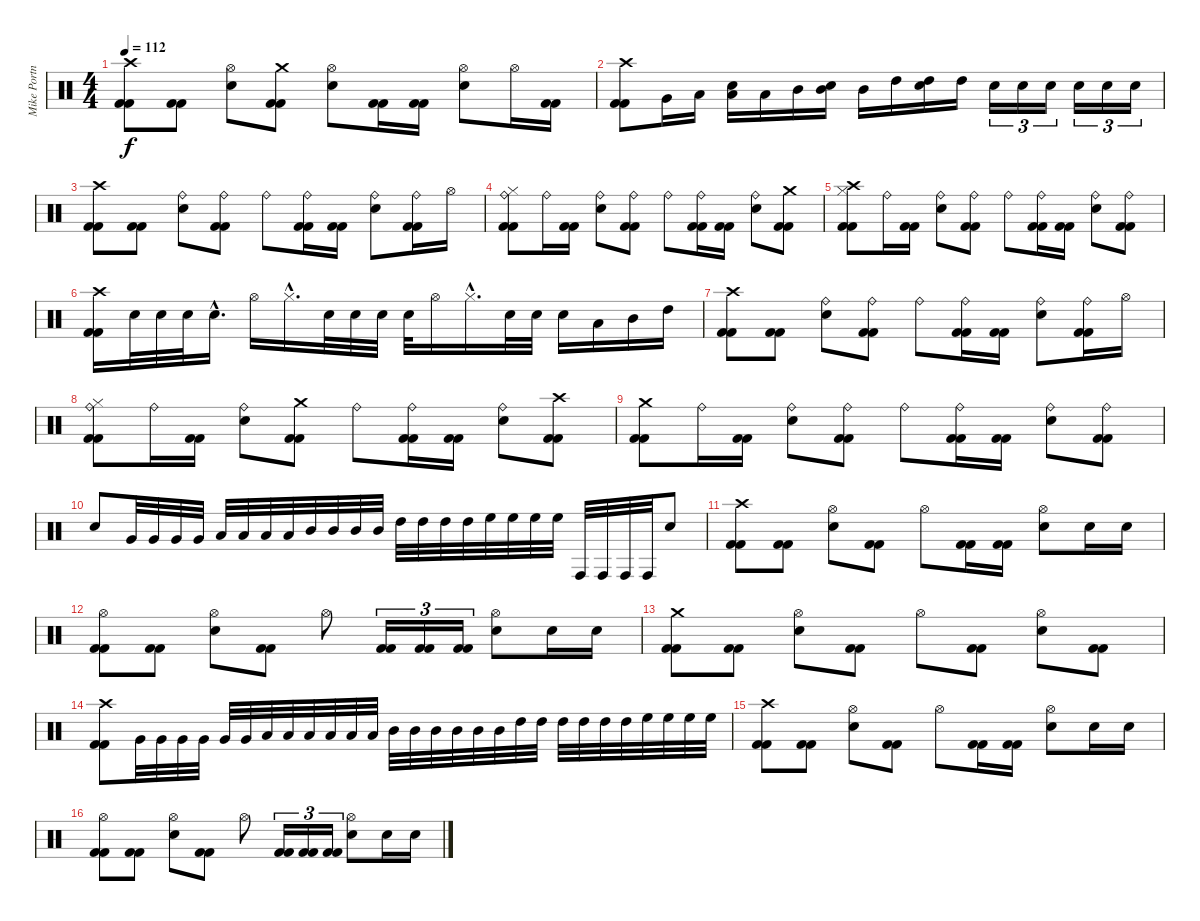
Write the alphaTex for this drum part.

\track ("Mike Portnoy - Drum" "Mike Portn") {instrument percussion}
\staff {score}
\articulation defaults
\ts (4 4)
\tempo 112
\clef neutral
\ks c
("Crash high (hit)" "Kick (hit) 2" "Kick (hit) 2").8{dy f} ("Kick (hit) 2" "Kick (hit) 2").8 ("Hi-Hat (open)" "Snare (hit) 2").8 ("Crash medium (hit)" "Kick (hit) 2" "Kick (hit) 2").8 ("Hi-Hat (open)" "Snare (hit) 2").8 ("Kick (hit) 2" "Kick (hit) 2").16 ("Kick (hit) 2" "Kick (hit) 2").16 ("Hi-Hat (open)" "Snare (hit) 2").8 "Hi-Hat (open)".16 ("Kick (hit) 2" "Kick (hit) 2").16 |
("Crash high (hit)" "Kick (hit) 2" "Kick (hit) 2").8 "Very Low Tom (hit)".16 "Low Tom (hit)".16 ("Snare (hit) 2" "Low Tom (hit)").16 "Low Tom (hit)".16 "Mid Tom (hit)".16 ("Snare (hit) 2" "Mid Tom (hit)").16 "Mid Tom (hit)".16 "High Tom (hit)".16 ("High Tom (hit)" "Snare (hit) 2").16 "High Tom (hit)".16 "Snare (hit) 2".16{tu (3 2)} "Snare (hit) 2".16{tu (3 2)} "Snare (hit) 2".16{tu (3 2)} "Snare (hit) 2".16{tu (3 2)} "Snare (hit) 2".16{tu (3 2)} "Snare (hit) 2".16{tu (3 2)} |
("Crash high (hit)" "Kick (hit) 2" "Kick (hit) 2").8 ("Kick (hit) 2" "Kick (hit) 2").8 ("Ride (bell)" "Snare (hit) 2").8 ("Ride (bell)" "Kick (hit) 2" "Kick (hit) 2").8 "Ride (bell)".8 ("Ride (bell)" "Kick (hit) 2" "Kick (hit) 2").16 ("Kick (hit) 2" "Kick (hit) 2").16 ("Ride (bell)" "Snare (hit) 2").8 ("Ride (bell)" "Kick (hit) 2" "Kick (hit) 2").16 "Hi-Hat (open)".16 |
("Ride (bell)" "Hi-Hat (closed)" "Kick (hit) 2" "Kick (hit) 2").8 "Ride (bell)".16 ("Kick (hit) 2" "Kick (hit) 2").16 ("Ride (bell)" "Snare (hit) 2").8 ("Ride (bell)" "Kick (hit) 2" "Kick (hit) 2").8 "Ride (bell)".8 ("Ride (bell)" "Kick (hit) 2" "Kick (hit) 2").16 ("Kick (hit) 2" "Kick (hit) 2").16 ("Ride (bell)" "Snare (hit) 2").8 ("Crash medium (hit)" "Kick (hit) 2" "Kick (hit) 2").8 |
("Crash high (hit)" "Hi-Hat (closed)" "Kick (hit) 2" "Kick (hit) 2").8 "Ride (bell)".16 ("Kick (hit) 2" "Kick (hit) 2").16 ("Ride (bell)" "Snare (hit) 2").8 ("Ride (bell)" "Kick (hit) 2" "Kick (hit) 2").8 "Ride (bell)".8 ("Ride (bell)" "Kick (hit) 2" "Kick (hit) 2").16 ("Kick (hit) 2" "Kick (hit) 2").16 ("Ride (bell)" "Snare (hit) 2").8 ("Ride (bell)" "Kick (hit) 2" "Kick (hit) 2").8 |
("Crash high (hit)" "Kick (hit) 2" "Kick (hit) 2").16 "Snare (hit) 2".32 "Snare (hit) 2".32 "Snare (hit) 2".32 "Snare (hit) 2"{hac}.16{d} "Hi-Hat (open)".16 "Hi-Hat (closed)"{hac}.16{d} "Snare (hit) 2".32 "Snare (hit) 2".32 "Snare (hit) 2".32 "Snare (hit) 2".32 "Hi-Hat (open)".16 "Hi-Hat (closed)"{hac}.16{d} "Snare (hit) 2".32 "Snare (hit) 2".32 "Snare (hit) 2".16 "Low Tom (hit)".16 "Mid Tom (hit)".16 "High Tom (hit)".16 |
("Crash high (hit)" "Kick (hit) 2" "Kick (hit) 2").8 ("Kick (hit) 2" "Kick (hit) 2").8 ("Ride (bell)" "Snare (hit) 2").8 ("Ride (bell)" "Kick (hit) 2" "Kick (hit) 2").8 "Ride (bell)".8 ("Ride (bell)" "Kick (hit) 2" "Kick (hit) 2").16 ("Kick (hit) 2" "Kick (hit) 2").16 ("Ride (bell)" "Snare (hit) 2").8 ("Ride (bell)" "Kick (hit) 2" "Kick (hit) 2").16 "Hi-Hat (open)".16 |
("Ride (bell)" "Hi-Hat (closed)" "Kick (hit) 2" "Kick (hit) 2").8 "Ride (bell)".16 ("Kick (hit) 2" "Kick (hit) 2").16 ("Ride (bell)" "Snare (hit) 2").8 ("Crash medium (hit)" "Kick (hit) 2" "Kick (hit) 2").8 "Ride (bell)".8 ("Ride (bell)" "Kick (hit) 2" "Kick (hit) 2").16 ("Kick (hit) 2" "Kick (hit) 2").16 ("Ride (bell)" "Snare (hit) 2").8 ("Crash high (hit)" "Kick (hit) 2" "Kick (hit) 2").8 |
("Crash medium (hit)" "Kick (hit) 2" "Kick (hit) 2").8 "Ride (bell)".16 ("Kick (hit) 2" "Kick (hit) 2").16 ("Ride (bell)" "Snare (hit) 2").8 ("Ride (bell)" "Kick (hit) 2" "Kick (hit) 2").8 "Ride (bell)".8 ("Ride (bell)" "Kick (hit) 2" "Kick (hit) 2").16 ("Kick (hit) 2" "Kick (hit) 2").16 ("Ride (bell)" "Snare (hit) 2").8 ("Ride (bell)" "Kick (hit) 2" "Kick (hit) 2").8 |
"Snare (hit) 2".8 "Very Low Tom (hit)".32 "Very Low Tom (hit)".32 "Very Low Tom (hit)".32 "Very Low Tom (hit)".32 "Low Tom (hit)".32 "Low Tom (hit)".32 "Low Tom (hit)".32 "Low Tom (hit)".32 "Mid Tom (hit)".32 "Mid Tom (hit)".32 "Mid Tom (hit)".32 "Mid Tom (hit)".32 "High Tom (hit)".32 "High Tom (hit)".32 "High Tom (hit)".32 "High Tom (hit)".32 "High Floor Tom (hit)".32 "High Floor Tom (hit)".32 "High Floor Tom (hit)".32 "High Floor Tom (hit)".32 "Conga high (hit)".32 "Conga high (hit)".32 "Conga high (hit)".32 "Conga high (hit)".32 "Snare (hit) 2".8 |
("Crash high (hit)" "Kick (hit) 2" "Kick (hit) 2").8 ("Kick (hit) 2" "Kick (hit) 2").8 ("Hi-Hat (open)" "Snare (hit) 2").8 ("Kick (hit) 2" "Kick (hit) 2").8 "Hi-Hat (open)".8 ("Kick (hit) 2" "Kick (hit) 2").16 ("Kick (hit) 2" "Kick (hit) 2").16 ("Hi-Hat (open)" "Snare (hit) 2").8 "Snare (hit) 2".16 "Snare (hit) 2".16 |
("Hi-Hat (open)" "Kick (hit) 2" "Kick (hit) 2").8 ("Kick (hit) 2" "Kick (hit) 2").8 ("Hi-Hat (open)" "Snare (hit) 2").8 ("Kick (hit) 2" "Kick (hit) 2").8 "Hi-Hat (open)".8 ("Kick (hit) 2" "Kick (hit) 2").16{tu (3 2)} ("Kick (hit) 2" "Kick (hit) 2").16{tu (3 2)} ("Kick (hit) 2" "Kick (hit) 2").16{tu (3 2)} ("Hi-Hat (open)" "Snare (hit) 2").8 "Snare (hit) 2".16 "Snare (hit) 2".16 |
("Crash medium (hit)" "Kick (hit) 2" "Kick (hit) 2").8 ("Kick (hit) 2" "Kick (hit) 2").8 ("Hi-Hat (open)" "Snare (hit) 2").8 ("Kick (hit) 2" "Kick (hit) 2").8 "Hi-Hat (open)".8 ("Kick (hit) 2" "Kick (hit) 2").8 ("Hi-Hat (open)" "Snare (hit) 2").8 ("Kick (hit) 2" "Kick (hit) 2").8 |
("Crash high (hit)" "Kick (hit) 2" "Kick (hit) 2").8 "Very Low Tom (hit)".32 "Very Low Tom (hit)".32 "Very Low Tom (hit)".32 "Very Low Tom (hit)".32 "Very Low Tom (hit)".32 "Very Low Tom (hit)".32 "Low Tom (hit)".32 "Low Tom (hit)".32 "Low Tom (hit)".32 "Low Tom (hit)".32 "Low Tom (hit)".32 "Low Tom (hit)".32 "Mid Tom (hit)".32 "Mid Tom (hit)".32 "Mid Tom (hit)".32 "Mid Tom (hit)".32 "Mid Tom (hit)".32 "Mid Tom (hit)".32 "High Tom (hit)".32 "High Tom (hit)".32 "High Tom (hit)".32 "High Tom (hit)".32 "High Tom (hit)".32 "High Tom (hit)".32 "High Floor Tom (hit)".32 "High Floor Tom (hit)".32 "High Floor Tom (hit)".32 "High Floor Tom (hit)".32 |
("Crash high (hit)" "Kick (hit) 2" "Kick (hit) 2").8 ("Kick (hit) 2" "Kick (hit) 2").8 ("Hi-Hat (open)" "Snare (hit) 2").8 ("Kick (hit) 2" "Kick (hit) 2").8 "Hi-Hat (open)".8 ("Kick (hit) 2" "Kick (hit) 2").16 ("Kick (hit) 2" "Kick (hit) 2").16 ("Hi-Hat (open)" "Snare (hit) 2").8 "Snare (hit) 2".16 "Snare (hit) 2".16 |
("Hi-Hat (open)" "Kick (hit) 2" "Kick (hit) 2").8 ("Kick (hit) 2" "Kick (hit) 2").8 ("Hi-Hat (open)" "Snare (hit) 2").8 ("Kick (hit) 2" "Kick (hit) 2").8 "Hi-Hat (open)".8 ("Kick (hit) 2" "Kick (hit) 2").16{tu (3 2)} ("Kick (hit) 2" "Kick (hit) 2").16{tu (3 2)} ("Kick (hit) 2" "Kick (hit) 2").16{tu (3 2)} ("Hi-Hat (open)" "Snare (hit) 2").8 "Snare (hit) 2".16 "Snare (hit) 2".16
